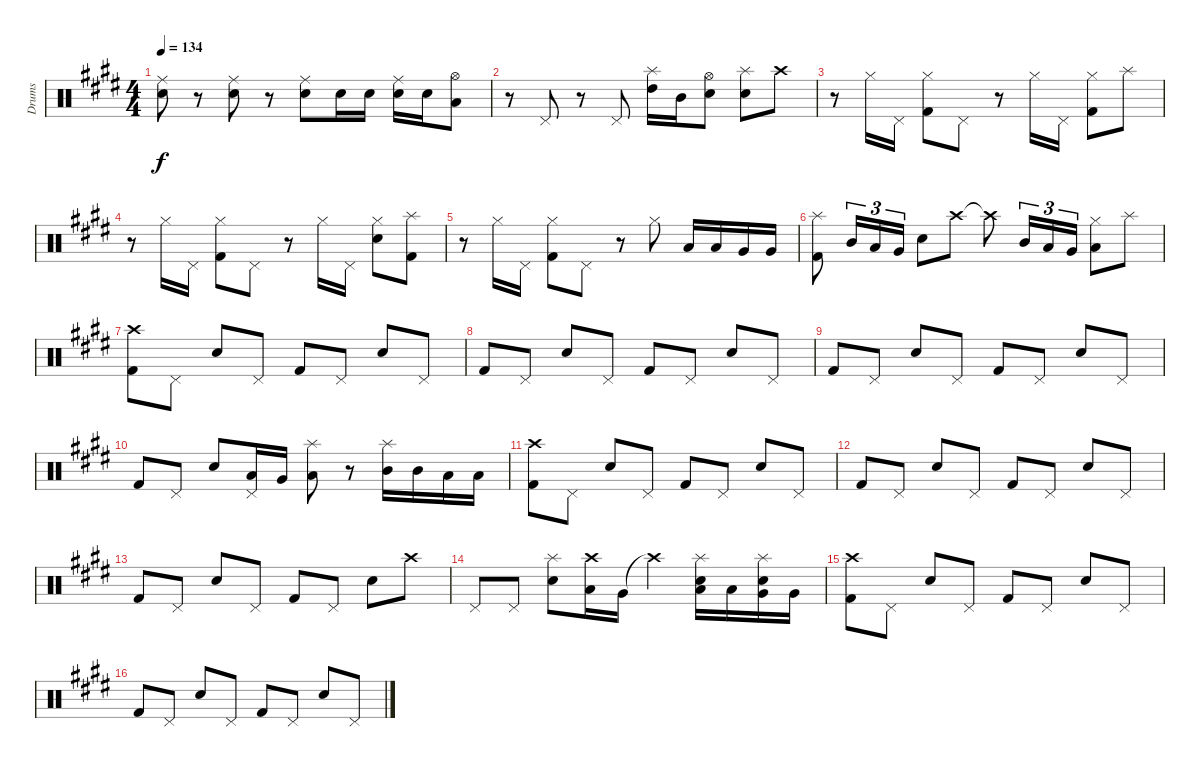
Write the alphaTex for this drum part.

\track ("Drums" "Drums") {instrument percussion}
\staff {score}
\articulation defaults
\ts (4 4)
\tempo 134
\clef neutral
\ks e
("Ride (middle)" "Electric Snare (hit)").8{dy f} r.8 ("Ride (middle)" "Electric Snare (hit)").8 r.8 ("Ride (middle)" "Electric Snare (hit)").8 "Electric Snare (hit)".16{volume 8} "Electric Snare (hit)".16 ("Ride (middle)" "Electric Snare (hit)").16 "Electric Snare (hit)".16 ("Hi-Hat (open)" "Low Tom (hit)").8{volume 10} |
r.8 "Pedal Hi-Hat (hit)".8 r.8 "Pedal Hi-Hat (hit)".8 ("High Tom (hit)" "Splash (hit)").16 "Mid Tom (hit)".16 ("Electric Snare (hit)" "Hi-Hat (open)").8 ("Electric Snare (hit)" "Splash (hit)").8 "Crash high (hit)".8 |
r.8 "Hi-Hat (closed)".16 "Pedal Hi-Hat (hit)".16 ("Hi-Hat (closed)" "Kick (hit) 2").8 "Pedal Hi-Hat (hit)".8 r.8 "Hi-Hat (closed)".16 "Pedal Hi-Hat (hit)".16 ("Hi-Hat (closed)" "Kick (hit) 2").8 "Splash (hit)".8 |
r.8 "Hi-Hat (closed)".16 "Pedal Hi-Hat (hit)".16 ("Hi-Hat (closed)" "Kick (hit) 2").8 "Pedal Hi-Hat (hit)".8 r.8 "Hi-Hat (closed)".16 "Pedal Hi-Hat (hit)".16 ("Hi-Hat (closed)" "Electric Snare (hit)").8 ("Splash (hit)" "Kick (hit) 2").8 |
r.8 "Hi-Hat (closed)".16 "Pedal Hi-Hat (hit)".16 ("Hi-Hat (closed)" "Kick (hit) 2").8 "Pedal Hi-Hat (hit)".8 r.8 "Hi-Hat (closed)".8 "Low Tom (hit)".16 "Low Tom (hit)".16 "Very Low Tom (hit)".16 "Very Low Tom (hit)".16 |
("Splash (hit)" "Kick (hit) 2").8 "Mid Tom (hit)".16{tu (3 2)} "Low Tom (hit)".16{tu (3 2)} "Very Low Tom (hit)".16{tu (3 2)} "Electric Snare (hit)".8 "Crash high (hit)".8 "Crash high (hit)"{t}.8 "Mid Tom (hit)".16{tu (3 2)} "Low Tom (hit)".16{tu (3 2)} "Very Low Tom (hit)".16{tu (3 2)} ("Low Floor Tom (hit)" "Hi-Hat (closed)").8 "Splash (hit)".8 |
("Crash high (hit)" "Kick (hit) 2").8 "Pedal Hi-Hat (hit)".8 "Electric Snare (hit)".8 "Pedal Hi-Hat (hit)".8 "Kick (hit) 2".8 "Pedal Hi-Hat (hit)".8 "Electric Snare (hit)".8 "Pedal Hi-Hat (hit)".8 |
"Kick (hit) 2".8 "Pedal Hi-Hat (hit)".8 "Electric Snare (hit)".8 "Pedal Hi-Hat (hit)".8 "Kick (hit) 2".8 "Pedal Hi-Hat (hit)".8 "Electric Snare (hit)".8 "Pedal Hi-Hat (hit)".8 |
"Kick (hit) 2".8 "Pedal Hi-Hat (hit)".8 "Electric Snare (hit)".8 "Pedal Hi-Hat (hit)".8 "Kick (hit) 2".8 "Pedal Hi-Hat (hit)".8 "Electric Snare (hit)".8 "Pedal Hi-Hat (hit)".8 |
"Kick (hit) 2".8 "Pedal Hi-Hat (hit)".8 "Electric Snare (hit)".8 ("Low Tom (hit)" "Pedal Hi-Hat (hit)").16 "Very Low Tom (hit)".16 ("Low Floor Tom (hit)" "Splash (hit)").8 r.8 ("Splash (hit)" "Mid Tom (hit)").16 "Mid Tom (hit)".16 "Low Tom (hit)".16 "Low Tom (hit)".16 |
("Crash high (hit)" "Kick (hit) 2").8 "Pedal Hi-Hat (hit)".8 "Electric Snare (hit)".8 "Pedal Hi-Hat (hit)".8 "Kick (hit) 2".8 "Pedal Hi-Hat (hit)".8 "Electric Snare (hit)".8 "Pedal Hi-Hat (hit)".8 |
"Kick (hit) 2".8 "Pedal Hi-Hat (hit)".8 "Electric Snare (hit)".8 "Pedal Hi-Hat (hit)".8 "Kick (hit) 2".8 "Pedal Hi-Hat (hit)".8 "Electric Snare (hit)".8 "Pedal Hi-Hat (hit)".8 |
"Kick (hit) 2".8 "Pedal Hi-Hat (hit)".8 "Electric Snare (hit)".8 "Pedal Hi-Hat (hit)".8 "Kick (hit) 2".8 "Pedal Hi-Hat (hit)".8 "Electric Snare (hit)".8 "Crash high (hit)".8 |
"Pedal Hi-Hat (hit)".8 "Pedal Hi-Hat (hit)".8 ("Electric Snare (hit)" "Splash (hit)").8 ("Crash high (hit)" "Low Tom (hit)").16 "Very Low Tom (hit)".16 "Crash high (hit)"{t}.4 ("Electric Snare (hit)" "Low Tom (hit)" "Splash (hit)").16 "Low Tom (hit)".16 ("Electric Snare (hit)" "Very Low Tom (hit)" "Splash (hit)").16 "Very Low Tom (hit)".16 |
("Crash high (hit)" "Kick (hit) 2").8 "Pedal Hi-Hat (hit)".8 "Electric Snare (hit)".8 "Pedal Hi-Hat (hit)".8 "Kick (hit) 2".8 "Pedal Hi-Hat (hit)".8 "Electric Snare (hit)".8 "Pedal Hi-Hat (hit)".8 |
"Kick (hit) 2".8 "Pedal Hi-Hat (hit)".8 "Electric Snare (hit)".8 "Pedal Hi-Hat (hit)".8 "Kick (hit) 2".8 "Pedal Hi-Hat (hit)".8 "Electric Snare (hit)".8 "Pedal Hi-Hat (hit)".8
